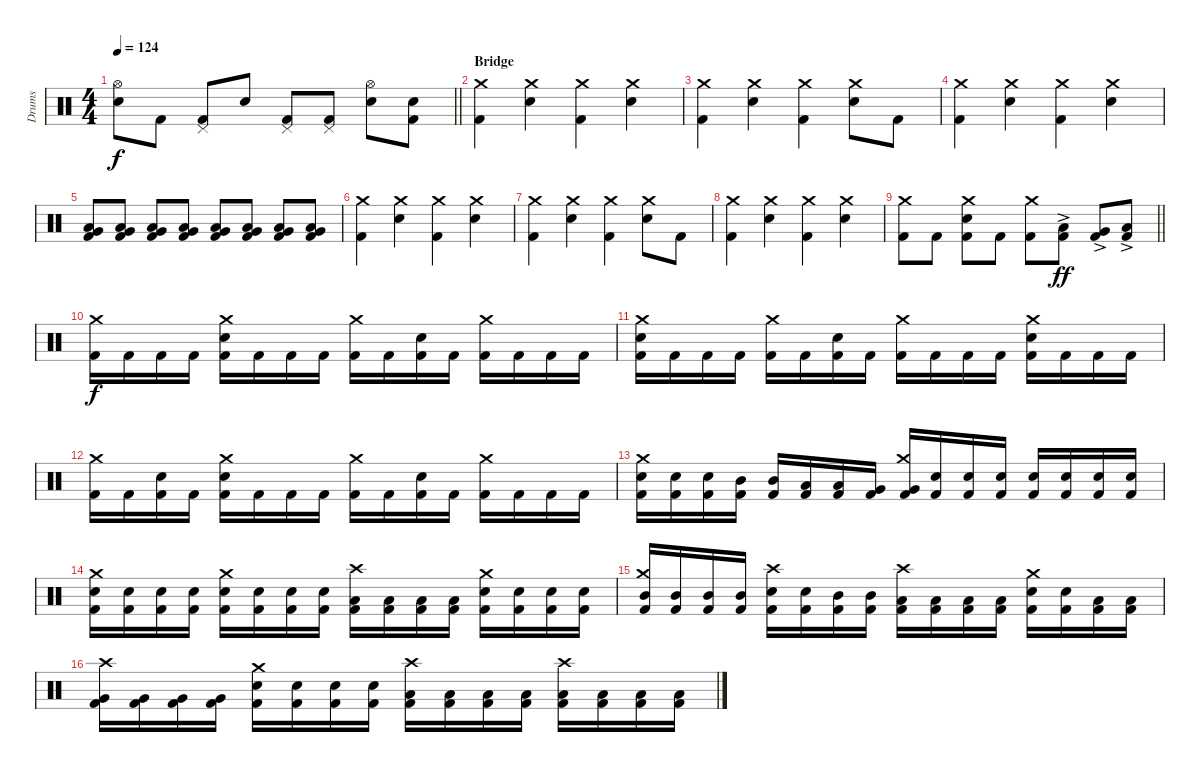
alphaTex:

\track ("Drums" "Drums") {instrument percussion}
\staff {score}
\articulation defaults
\ts (4 4)
\tempo 124
\clef neutral
\barLineRight lightlight
\ks c
("Snare (hit) 2" "Hi-Hat (open)").8{dy f} "Kick (hit) 2".8 ("Kick (hit) 2" "Pedal Hi-Hat (hit)").8 "Snare (hit) 2".8 ("Kick (hit) 2" "Pedal Hi-Hat (hit)").8 ("Kick (hit) 2" "Pedal Hi-Hat (hit)").8 ("Snare (hit) 2" "Hi-Hat (open)").8 ("Kick (hit) 2" "Snare (hit) 2").8 |
\section ("" "Bridge")
("Kick (hit) 2" "Crash medium (hit)").4 ("Snare (hit) 2" "Crash medium (hit)").4 ("Kick (hit) 2" "Crash medium (hit)").4 ("Snare (hit) 2" "Crash medium (hit)").4 |
("Kick (hit) 2" "Crash medium (hit)").4 ("Snare (hit) 2" "Crash medium (hit)").4 ("Kick (hit) 2" "Crash medium (hit)").4 ("Snare (hit) 2" "Crash medium (hit)").8 "Kick (hit) 2".8 |
("Kick (hit) 2" "Crash medium (hit)").4 ("Snare (hit) 2" "Crash medium (hit)").4 ("Kick (hit) 2" "Crash medium (hit)").4 ("Snare (hit) 2" "Crash medium (hit)").4 |
("Kick (hit) 2" "Very Low Tom (hit)" "Low Floor Tom (hit)").8 ("Kick (hit) 2" "Very Low Tom (hit)" "Low Floor Tom (hit)").8 ("Kick (hit) 2" "Very Low Tom (hit)" "Low Floor Tom (hit)").8 ("Kick (hit) 2" "Very Low Tom (hit)" "Low Floor Tom (hit)").8 ("Kick (hit) 2" "Very Low Tom (hit)" "Low Floor Tom (hit)").8 ("Kick (hit) 2" "Very Low Tom (hit)" "Low Floor Tom (hit)").8 ("Kick (hit) 2" "Very Low Tom (hit)" "Low Floor Tom (hit)").8 ("Kick (hit) 2" "Very Low Tom (hit)" "Low Floor Tom (hit)").8 |
("Kick (hit) 2" "Crash medium (hit)").4 ("Snare (hit) 2" "Crash medium (hit)").4 ("Kick (hit) 2" "Crash medium (hit)").4 ("Snare (hit) 2" "Crash medium (hit)").4 |
("Kick (hit) 2" "Crash medium (hit)").4 ("Snare (hit) 2" "Crash medium (hit)").4 ("Kick (hit) 2" "Crash medium (hit)").4 ("Snare (hit) 2" "Crash medium (hit)").8 "Kick (hit) 2".8 |
("Kick (hit) 2" "Crash medium (hit)").4 ("Snare (hit) 2" "Crash medium (hit)").4 ("Kick (hit) 2" "Crash medium (hit)").4 ("Snare (hit) 2" "Crash medium (hit)").4 |
\barLineRight lightlight
("Kick (hit) 2" "Crash medium (hit)").8 "Kick (hit) 2".8 ("Kick (hit) 2" "Snare (hit) 2" "Crash medium (hit)").8 "Kick (hit) 2".8 ("Kick (hit) 2" "Crash medium (hit)").8 ("Kick (hit) 2" "Low Tom (hit)"{ac}).8{dy ff} ("Kick (hit) 2" "Very Low Tom (hit)"{ac}).8 ("Kick (hit) 2" "Low Floor Tom (hit)"{ac}).8 |
\section ("" "")
("Kick (hit) 2" "Crash medium (hit)").16{dy f} "Kick (hit) 2".16 "Kick (hit) 2".16 "Kick (hit) 2".16 ("Kick (hit) 2" "Snare (hit) 2" "Crash medium (hit)").16 "Kick (hit) 2".16 "Kick (hit) 2".16 "Kick (hit) 2".16 ("Kick (hit) 2" "Crash medium (hit)").16 "Kick (hit) 2".16 ("Kick (hit) 2" "Snare (hit) 2").16 "Kick (hit) 2".16 ("Kick (hit) 2" "Crash medium (hit)").16 "Kick (hit) 2".16 "Kick (hit) 2".16 "Kick (hit) 2".16 |
("Kick (hit) 2" "Snare (hit) 2" "Crash medium (hit)").16 "Kick (hit) 2".16 "Kick (hit) 2".16 "Kick (hit) 2".16 ("Kick (hit) 2" "Crash medium (hit)").16 "Kick (hit) 2".16 ("Kick (hit) 2" "Snare (hit) 2").16 "Kick (hit) 2".16 ("Kick (hit) 2" "Crash medium (hit)").16 "Kick (hit) 2".16 "Kick (hit) 2".16 "Kick (hit) 2".16 ("Kick (hit) 2" "Snare (hit) 2" "Crash medium (hit)").16 "Kick (hit) 2".16 "Kick (hit) 2".16 "Kick (hit) 2".16 |
("Kick (hit) 2" "Crash medium (hit)").16 "Kick (hit) 2".16 ("Kick (hit) 2" "Snare (hit) 2").16 "Kick (hit) 2".16 ("Kick (hit) 2" "Snare (hit) 2" "Crash medium (hit)").16 "Kick (hit) 2".16 "Kick (hit) 2".16 "Kick (hit) 2".16 ("Kick (hit) 2" "Crash medium (hit)").16 "Kick (hit) 2".16 ("Kick (hit) 2" "Snare (hit) 2").16 "Kick (hit) 2".16 ("Kick (hit) 2" "Crash medium (hit)").16 "Kick (hit) 2".16 "Kick (hit) 2".16 "Kick (hit) 2".16 |
("Kick (hit) 2" "Snare (hit) 2" "Crash medium (hit)").16 ("Kick (hit) 2" "Snare (hit) 2").16 ("Kick (hit) 2" "Snare (hit) 2").16 ("Kick (hit) 2" "Mid Tom (hit)").16 ("Kick (hit) 2" "Mid Tom (hit)").16 ("Kick (hit) 2" "Low Tom (hit)").16 ("Kick (hit) 2" "Low Tom (hit)").16 ("Kick (hit) 2" "Very Low Tom (hit)").16 ("Kick (hit) 2" "Very Low Tom (hit)" "Crash medium (hit)").16 ("Kick (hit) 2" "Snare (hit) 2").16 ("Kick (hit) 2" "Snare (hit) 2").16 ("Kick (hit) 2" "Snare (hit) 2").16 ("Kick (hit) 2" "Snare (hit) 2").16 ("Kick (hit) 2" "Snare (hit) 2").16 ("Kick (hit) 2" "Snare (hit) 2").16 ("Kick (hit) 2" "Snare (hit) 2").16 |
("Kick (hit) 2" "Snare (hit) 2" "Crash medium (hit)").16 ("Kick (hit) 2" "Snare (hit) 2").16 ("Kick (hit) 2" "Snare (hit) 2").16 ("Kick (hit) 2" "Snare (hit) 2").16 ("Kick (hit) 2" "Snare (hit) 2" "Crash medium (hit)").16 ("Kick (hit) 2" "Snare (hit) 2").16 ("Kick (hit) 2" "Snare (hit) 2").16 ("Kick (hit) 2" "Snare (hit) 2").16 ("Kick (hit) 2" "Low Tom (hit)" "Crash high (hit)").16 ("Kick (hit) 2" "Low Tom (hit)").16 ("Kick (hit) 2" "Low Tom (hit)").16 ("Kick (hit) 2" "Low Tom (hit)").16 ("Kick (hit) 2" "Snare (hit) 2" "Crash medium (hit)").16 ("Kick (hit) 2" "Snare (hit) 2").16 ("Kick (hit) 2" "Snare (hit) 2").16 ("Kick (hit) 2" "Snare (hit) 2").16 |
("Kick (hit) 2" "Mid Tom (hit)" "Crash medium (hit)").16 ("Kick (hit) 2" "Mid Tom (hit)").16 ("Kick (hit) 2" "Mid Tom (hit)").16 ("Kick (hit) 2" "Mid Tom (hit)").16 ("Kick (hit) 2" "Snare (hit) 2" "Crash high (hit)").16 ("Kick (hit) 2" "Snare (hit) 2").16 ("Kick (hit) 2" "Mid Tom (hit)").16 ("Kick (hit) 2" "Mid Tom (hit)").16 ("Kick (hit) 2" "Low Tom (hit)" "Crash high (hit)").16 ("Kick (hit) 2" "Low Tom (hit)").16 ("Kick (hit) 2" "Low Tom (hit)").16 ("Kick (hit) 2" "Low Tom (hit)").16 ("Kick (hit) 2" "Snare (hit) 2" "Crash medium (hit)").16 ("Kick (hit) 2" "Snare (hit) 2").16 ("Kick (hit) 2" "Low Tom (hit)").16 ("Kick (hit) 2" "Low Tom (hit)").16 |
("Kick (hit) 2" "Very Low Tom (hit)" "Crash high (hit)").16 ("Kick (hit) 2" "Very Low Tom (hit)").16 ("Kick (hit) 2" "Very Low Tom (hit)").16 ("Kick (hit) 2" "Very Low Tom (hit)").16 ("Kick (hit) 2" "Snare (hit) 2" "Crash medium (hit)").16 ("Kick (hit) 2" "Snare (hit) 2").16 ("Kick (hit) 2" "Snare (hit) 2").16 ("Kick (hit) 2" "Snare (hit) 2").16 ("Kick (hit) 2" "Low Floor Tom (hit)" "Crash high (hit)").16 ("Kick (hit) 2" "Low Floor Tom (hit)").16 ("Kick (hit) 2" "Low Floor Tom (hit)").16 ("Kick (hit) 2" "Low Floor Tom (hit)").16 ("Kick (hit) 2" "Low Floor Tom (hit)" "Crash high (hit)").16 ("Kick (hit) 2" "Low Floor Tom (hit)").16 ("Kick (hit) 2" "Low Floor Tom (hit)").16 ("Kick (hit) 2" "Low Floor Tom (hit)").16
